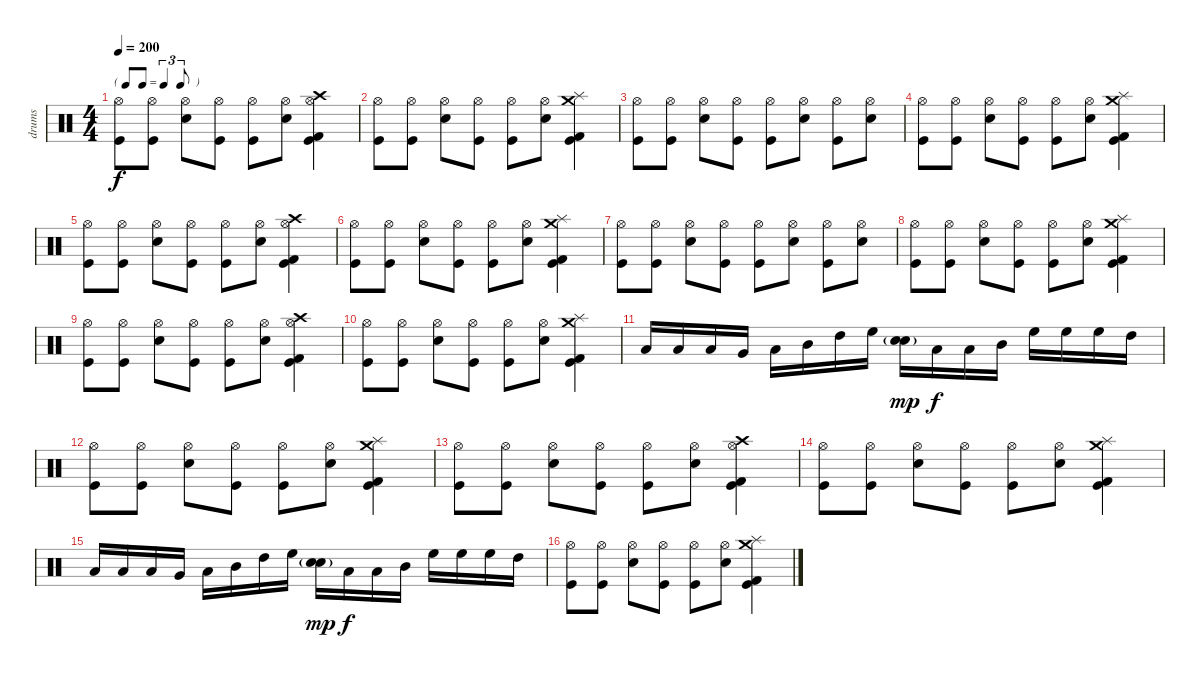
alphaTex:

\track ("drums" "drums") {instrument percussion}
\staff {score}
\articulation defaults
\ts (4 4)
\tf triplet8th
\tempo 200
\clef neutral
\ks c
("Hi-Hat (open)" "Kick (hit)").8{dy f} ("Hi-Hat (open)" "Kick (hit)").8 ("Hi-Hat (open)" "Snare (hit) 2").8 ("Hi-Hat (open)" "Kick (hit)").8 ("Hi-Hat (open)" "Kick (hit)").8 ("Hi-Hat (open)" "Snare (hit) 2").8 ("Crash high (hit)" "Hi-Hat (open)" "Kick (hit)" "Kick (hit) 2").4 |
("Hi-Hat (open)" "Kick (hit)").8 ("Hi-Hat (open)" "Kick (hit)").8 ("Hi-Hat (open)" "Snare (hit) 2").8 ("Hi-Hat (open)" "Kick (hit)").8 ("Hi-Hat (open)" "Kick (hit)").8 ("Hi-Hat (open)" "Snare (hit) 2").8 ("Crash medium (hit)" "Splash (hit)" "Kick (hit)" "Kick (hit) 2").4 |
("Hi-Hat (open)" "Kick (hit)").8 ("Hi-Hat (open)" "Kick (hit)").8 ("Hi-Hat (open)" "Snare (hit) 2").8 ("Hi-Hat (open)" "Kick (hit)").8 ("Hi-Hat (open)" "Kick (hit)").8 ("Hi-Hat (open)" "Snare (hit) 2").8 ("Hi-Hat (open)" "Kick (hit)").8 ("Hi-Hat (open)" "Snare (hit) 2").8 |
("Hi-Hat (open)" "Kick (hit)").8 ("Hi-Hat (open)" "Kick (hit)").8 ("Hi-Hat (open)" "Snare (hit) 2").8 ("Hi-Hat (open)" "Kick (hit)").8 ("Hi-Hat (open)" "Kick (hit)").8 ("Hi-Hat (open)" "Snare (hit) 2").8 ("Crash medium (hit)" "Splash (hit)" "Kick (hit)" "Kick (hit) 2").4 |
("Hi-Hat (open)" "Kick (hit)").8 ("Hi-Hat (open)" "Kick (hit)").8 ("Hi-Hat (open)" "Snare (hit) 2").8 ("Hi-Hat (open)" "Kick (hit)").8 ("Hi-Hat (open)" "Kick (hit)").8 ("Hi-Hat (open)" "Snare (hit) 2").8 ("Crash high (hit)" "Hi-Hat (open)" "Kick (hit)" "Kick (hit) 2").4 |
("Hi-Hat (open)" "Kick (hit)").8 ("Hi-Hat (open)" "Kick (hit)").8 ("Hi-Hat (open)" "Snare (hit) 2").8 ("Hi-Hat (open)" "Kick (hit)").8 ("Hi-Hat (open)" "Kick (hit)").8 ("Hi-Hat (open)" "Snare (hit) 2").8 ("Crash medium (hit)" "Splash (hit)" "Kick (hit)" "Kick (hit) 2").4 |
("Hi-Hat (open)" "Kick (hit)").8 ("Hi-Hat (open)" "Kick (hit)").8 ("Hi-Hat (open)" "Snare (hit) 2").8 ("Hi-Hat (open)" "Kick (hit)").8 ("Hi-Hat (open)" "Kick (hit)").8 ("Hi-Hat (open)" "Snare (hit) 2").8 ("Hi-Hat (open)" "Kick (hit)").8 ("Hi-Hat (open)" "Snare (hit) 2").8 |
("Hi-Hat (open)" "Kick (hit)").8 ("Hi-Hat (open)" "Kick (hit)").8 ("Hi-Hat (open)" "Snare (hit) 2").8 ("Hi-Hat (open)" "Kick (hit)").8 ("Hi-Hat (open)" "Kick (hit)").8 ("Hi-Hat (open)" "Snare (hit) 2").8 ("Crash medium (hit)" "Splash (hit)" "Kick (hit)" "Kick (hit) 2").4 |
("Hi-Hat (open)" "Kick (hit)").8 ("Hi-Hat (open)" "Kick (hit)").8 ("Hi-Hat (open)" "Snare (hit) 2").8 ("Hi-Hat (open)" "Kick (hit)").8 ("Hi-Hat (open)" "Kick (hit)").8 ("Hi-Hat (open)" "Snare (hit) 2").8 ("Crash high (hit)" "Hi-Hat (open)" "Kick (hit)" "Kick (hit) 2").4 |
("Hi-Hat (open)" "Kick (hit)").8 ("Hi-Hat (open)" "Kick (hit)").8 ("Hi-Hat (open)" "Snare (hit) 2").8 ("Hi-Hat (open)" "Kick (hit)").8 ("Hi-Hat (open)" "Kick (hit)").8 ("Hi-Hat (open)" "Snare (hit) 2").8 ("Crash medium (hit)" "Splash (hit)" "Kick (hit)" "Kick (hit) 2").4 |
"Low Floor Tom (hit)".16 "Low Floor Tom (hit)".16 "Low Floor Tom (hit)".16 "Very Low Tom (hit)".16 "Low Tom (hit)".16 "Mid Tom (hit)".16 "High Tom (hit)".16 "High Floor Tom (hit)".16 ("Electric Snare (hit)"{g} "Snare (hit) 2").16{dy mp} "Low Floor Tom (hit)".16{dy f} "Low Tom (hit)".16 "Mid Tom (hit)".16 "High Floor Tom (hit)".16 "High Floor Tom (hit)".16 "High Floor Tom (hit)".16 "High Tom (hit)".16 |
("Hi-Hat (open)" "Kick (hit)").8 ("Hi-Hat (open)" "Kick (hit)").8 ("Hi-Hat (open)" "Snare (hit) 2").8 ("Hi-Hat (open)" "Kick (hit)").8 ("Hi-Hat (open)" "Kick (hit)").8 ("Hi-Hat (open)" "Snare (hit) 2").8 ("Crash medium (hit)" "Splash (hit)" "Kick (hit)" "Kick (hit) 2").4 |
("Hi-Hat (open)" "Kick (hit)").8 ("Hi-Hat (open)" "Kick (hit)").8 ("Hi-Hat (open)" "Snare (hit) 2").8 ("Hi-Hat (open)" "Kick (hit)").8 ("Hi-Hat (open)" "Kick (hit)").8 ("Hi-Hat (open)" "Snare (hit) 2").8 ("Crash high (hit)" "Hi-Hat (open)" "Kick (hit)" "Kick (hit) 2").4 |
("Hi-Hat (open)" "Kick (hit)").8 ("Hi-Hat (open)" "Kick (hit)").8 ("Hi-Hat (open)" "Snare (hit) 2").8 ("Hi-Hat (open)" "Kick (hit)").8 ("Hi-Hat (open)" "Kick (hit)").8 ("Hi-Hat (open)" "Snare (hit) 2").8 ("Crash medium (hit)" "Splash (hit)" "Kick (hit)" "Kick (hit) 2").4 |
"Low Floor Tom (hit)".16 "Low Floor Tom (hit)".16 "Low Floor Tom (hit)".16 "Very Low Tom (hit)".16 "Low Tom (hit)".16 "Mid Tom (hit)".16 "High Tom (hit)".16 "High Floor Tom (hit)".16 ("Electric Snare (hit)"{g} "Snare (hit) 2").16{dy mp} "Low Floor Tom (hit)".16{dy f} "Low Tom (hit)".16 "Mid Tom (hit)".16 "High Floor Tom (hit)".16 "High Floor Tom (hit)".16 "High Floor Tom (hit)".16 "High Tom (hit)".16 |
("Hi-Hat (open)" "Kick (hit)").8 ("Hi-Hat (open)" "Kick (hit)").8 ("Hi-Hat (open)" "Snare (hit) 2").8 ("Hi-Hat (open)" "Kick (hit)").8 ("Hi-Hat (open)" "Kick (hit)").8 ("Hi-Hat (open)" "Snare (hit) 2").8 ("Crash medium (hit)" "Splash (hit)" "Kick (hit)" "Kick (hit) 2").4
